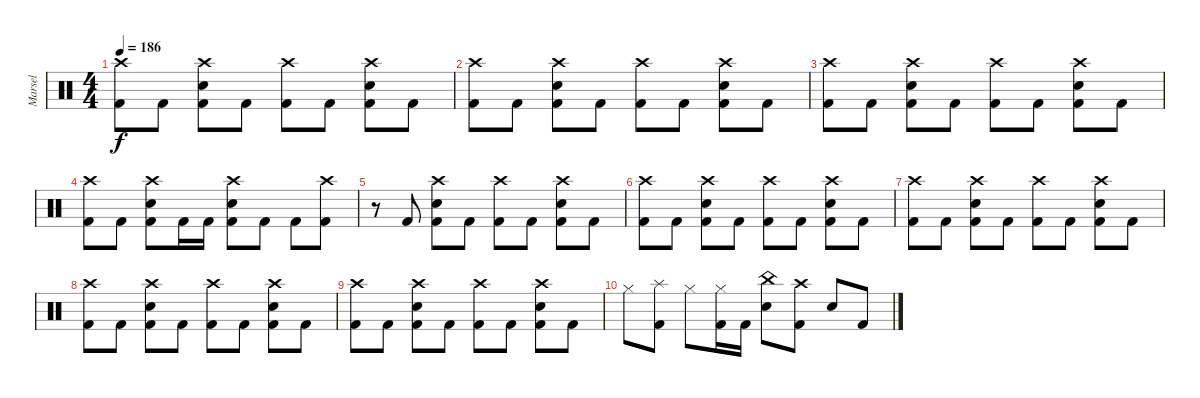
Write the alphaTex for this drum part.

\track ("Marsel" "Marsel") {mute instrument percussion}
\staff {score}
\articulation defaults
\ts (4 4)
\tempo 186
\clef neutral
\ks c
("Crash high (hit)" "Kick (hit) 2").8{dy f} "Kick (hit) 2".8 ("Crash high (hit)" "Snare (hit) 2" "Kick (hit) 2").8 "Kick (hit) 2".8 ("Crash high (hit)" "Kick (hit) 2").8 "Kick (hit) 2".8 ("Crash high (hit)" "Snare (hit) 2" "Kick (hit) 2").8 "Kick (hit) 2".8 |
("Crash high (hit)" "Kick (hit) 2").8 "Kick (hit) 2".8 ("Crash high (hit)" "Snare (hit) 2" "Kick (hit) 2").8 "Kick (hit) 2".8 ("Crash high (hit)" "Kick (hit) 2").8 "Kick (hit) 2".8 ("Crash high (hit)" "Snare (hit) 2" "Kick (hit) 2").8 "Kick (hit) 2".8 |
("Crash high (hit)" "Kick (hit) 2").8 "Kick (hit) 2".8 ("Crash high (hit)" "Snare (hit) 2" "Kick (hit) 2").8 "Kick (hit) 2".8 ("Crash high (hit)" "Kick (hit) 2").8 "Kick (hit) 2".8 ("Crash high (hit)" "Snare (hit) 2" "Kick (hit) 2").8 "Kick (hit) 2".8 |
("Crash high (hit)" "Kick (hit) 2").8 "Kick (hit) 2".8 ("Crash high (hit)" "Snare (hit) 2" "Kick (hit) 2").8 "Kick (hit) 2".16 "Kick (hit) 2".16 ("Crash high (hit)" "Snare (hit) 2" "Kick (hit) 2").8 "Kick (hit) 2".8 "Kick (hit) 2".8 ("Crash high (hit)" "Kick (hit) 2").8 |
r.8 "Kick (hit) 2".8 ("Crash high (hit)" "Snare (hit) 2" "Kick (hit) 2").8 "Kick (hit) 2".8 ("Crash high (hit)" "Kick (hit) 2").8 "Kick (hit) 2".8 ("Crash high (hit)" "Snare (hit) 2" "Kick (hit) 2").8 "Kick (hit) 2".8 |
("Crash high (hit)" "Kick (hit) 2").8 "Kick (hit) 2".8 ("Crash high (hit)" "Snare (hit) 2" "Kick (hit) 2").8 "Kick (hit) 2".8 ("Crash high (hit)" "Kick (hit) 2").8 "Kick (hit) 2".8 ("Crash high (hit)" "Snare (hit) 2" "Kick (hit) 2").8 "Kick (hit) 2".8 |
("Crash high (hit)" "Kick (hit) 2").8 "Kick (hit) 2".8 ("Crash high (hit)" "Snare (hit) 2" "Kick (hit) 2").8 "Kick (hit) 2".8 ("Crash high (hit)" "Kick (hit) 2").8 "Kick (hit) 2".8 ("Crash high (hit)" "Snare (hit) 2" "Kick (hit) 2").8 "Kick (hit) 2".8 |
("Crash high (hit)" "Kick (hit) 2").8 "Kick (hit) 2".8 ("Crash high (hit)" "Snare (hit) 2" "Kick (hit) 2").8 "Kick (hit) 2".8 ("Crash high (hit)" "Kick (hit) 2").8 "Kick (hit) 2".8 ("Crash high (hit)" "Snare (hit) 2" "Kick (hit) 2").8 "Kick (hit) 2".8 |
("Crash high (hit)" "Kick (hit) 2").8 "Kick (hit) 2".8 ("Crash high (hit)" "Snare (hit) 2" "Kick (hit) 2").8 "Kick (hit) 2".8 ("Crash high (hit)" "Kick (hit) 2").8 "Kick (hit) 2".8 ("Crash high (hit)" "Snare (hit) 2" "Kick (hit) 2").8 "Kick (hit) 2".8 |
"Hi-Hat (closed)".8 ("Splash (hit)" "Kick (hit) 2").8 "Hi-Hat (closed)".8 ("Hi-Hat (closed)" "Kick (hit) 2").16 "Kick (hit) 2".16 ("China (hit)" "Snare (hit) 2").8 ("Crash high (hit)" "Kick (hit) 2").8 "Snare (hit) 2".8 "Kick (hit) 2".8
